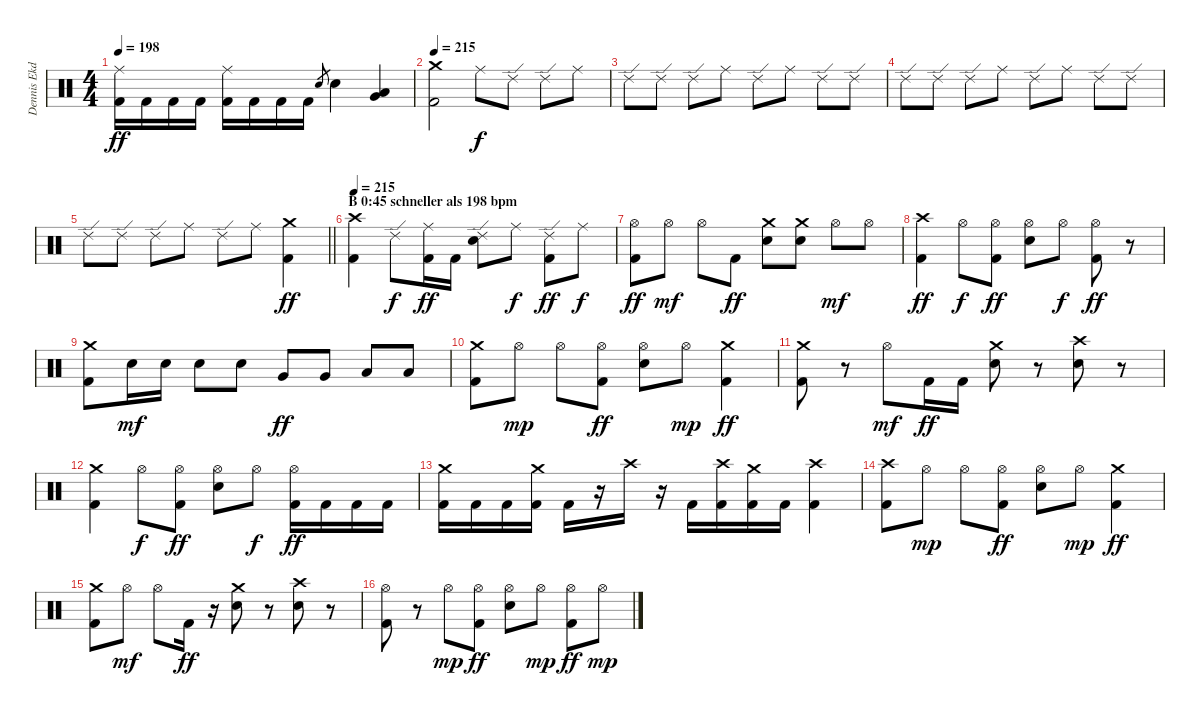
\track ("Dennis Ekdahl      (Drums)" "Dennis Ekd") {instrument percussion}
\staff {score}
\articulation defaults
\ts (4 4)
\tempo 198
\clef neutral
\ks c
("Ride (middle)" "Kick (hit) 2").16{dy ff} "Kick (hit) 2".16 "Kick (hit) 2".16 "Kick (hit) 2".16 ("Ride (middle)" "Kick (hit) 2").16 "Kick (hit) 2".16 "Kick (hit) 2".16 "Kick (hit) 2".16 "Electric Snare (hit)".8{gr} "Electric Snare (hit)".4 ("Very Low Tom (hit)" "Low Tom (hit)").4 |
\tempo 215
("Crash medium (hit)" "Kick (hit) 2").2 "Ride (middle)".8{dy f} "Ride (edge) 2".8 "Ride (edge) 2".8 "Ride (middle)".8 |
"Ride (edge) 2".8 "Ride (edge) 2".8 "Ride (edge) 2".8 "Ride (middle)".8 "Ride (edge) 2".8 "Ride (middle)".8 "Ride (edge) 2".8 "Ride (edge) 2".8 |
"Ride (edge) 2".8 "Ride (edge) 2".8 "Ride (edge) 2".8 "Ride (middle)".8 "Ride (edge) 2".8 "Ride (middle)".8 "Ride (edge) 2".8 "Ride (edge) 2".8 |
\barLineRight lightlight "Ride (edge) 2".8 "Ride (edge) 2".8 "Ride (edge) 2".8 "Ride (middle)".8 "Ride (edge) 2".8 "Ride (middle)".8
("Crash medium (hit)" "Kick (hit) 2").4{dy ff} |
\section ("" "B 0:45 schneller als 198 bpm")
\tempo 215
("Crash high (hit)" "Kick (hit) 2").4 "Ride (edge) 2".8{dy f} ("Ride (middle)" "Kick (hit) 2").16{dy ff} "Kick (hit) 2".16 ("Ride (edge) 2" "Electric Snare (hit)").8 "Ride (middle)".8{dy f} ("Ride (edge) 2" "Kick (hit) 2").8{dy ff} "Ride (middle)".8{dy f} |
("Hi-Hat (open)" "Kick (hit) 2").8{dy ff} "Hi-Hat (open)".8{dy mf} "Hi-Hat (open)".8 "Kick (hit) 2".8{dy ff} ("Crash medium (hit)" "Electric Snare (hit)").8 ("Crash medium (hit)" "Electric Snare (hit)").8 "Hi-Hat (open)".8{dy mf} "Hi-Hat (open)".8 |
("Crash high (hit)" "Kick (hit) 2").4{dy ff} "Hi-Hat (open)".8{dy f} ("Hi-Hat (open)" "Kick (hit) 2").8{dy ff} ("Hi-Hat (open)" "Electric Snare (hit)").8 "Hi-Hat (open)".8{dy f} ("Hi-Hat (open)" "Kick (hit) 2").8{dy ff} r.8 |
("Crash medium (hit)" "Kick (hit) 2").8 "Electric Snare (hit)".16{dy mf} "Electric Snare (hit)".16 "Electric Snare (hit)".8 "Electric Snare (hit)".8 "Very Low Tom (hit)".8{dy ff} "Very Low Tom (hit)".8 "Low Floor Tom (hit)".8 "Low Floor Tom (hit)".8 |
("Crash medium (hit)" "Kick (hit) 2").8 "Hi-Hat (open)".8{dy mp} "Hi-Hat (open)".8 ("Hi-Hat (open)" "Kick (hit) 2").8{dy ff} ("Hi-Hat (open)" "Electric Snare (hit)").8 "Hi-Hat (open)".8{dy mp} ("Crash medium (hit)" "Kick (hit) 2").4{dy ff} |
("Crash medium (hit)" "Kick (hit) 2").8 r.8 "Hi-Hat (open)".8{dy mf} "Kick (hit) 2".16{dy ff} "Kick (hit) 2".16 ("Crash medium (hit)" "Electric Snare (hit)").8 r.8 ("Crash high (hit)" "Electric Snare (hit)").8 r.8 |
("Crash medium (hit)" "Kick (hit) 2").4 "Hi-Hat (open)".8{dy f} ("Hi-Hat (open)" "Kick (hit) 2").8{dy ff} ("Hi-Hat (open)" "Electric Snare (hit)").8 "Hi-Hat (open)".8{dy f} ("Hi-Hat (open)" "Kick (hit) 2").16{dy ff} "Kick (hit) 2".16 "Kick (hit) 2".16 "Kick (hit) 2".16 |
("Crash medium (hit)" "Kick (hit) 2").16 "Kick (hit) 2".16 "Kick (hit) 2".16 ("Crash medium (hit)" "Kick (hit) 2").16 "Kick (hit) 2".16 r.16 "Crash high (hit)".16 r.16 "Kick (hit) 2".16 ("Crash high (hit)" "Kick (hit) 2").16 ("Crash medium (hit)" "Kick (hit) 2").16 "Kick (hit) 2".16 ("Crash high (hit)" "Kick (hit) 2").4 |
("Crash high (hit)" "Kick (hit) 2").8 "Hi-Hat (open)".8{dy mp} "Hi-Hat (open)".8 ("Hi-Hat (open)" "Kick (hit) 2").8{dy ff} ("Hi-Hat (open)" "Electric Snare (hit)").8 "Hi-Hat (open)".8{dy mp} ("Crash medium (hit)" "Kick (hit) 2").4{dy ff} |
("Crash medium (hit)" "Kick (hit) 2").8 "Hi-Hat (open)".8{dy mf} "Hi-Hat (open)".8 "Kick (hit) 2".16{dy ff} r.16 ("Crash medium (hit)" "Electric Snare (hit)").8 r.8 ("Crash high (hit)" "Electric Snare (hit)").8 r.8 |
("Hi-Hat (open)" "Kick (hit) 2").8 r.8 "Hi-Hat (open)".8{dy mp} ("Hi-Hat (open)" "Kick (hit) 2").8{dy ff} ("Hi-Hat (open)" "Electric Snare (hit)").8 "Hi-Hat (open)".8{dy mp} ("Hi-Hat (open)" "Kick (hit) 2").8{dy ff} "Hi-Hat (open)".8{dy mp}
